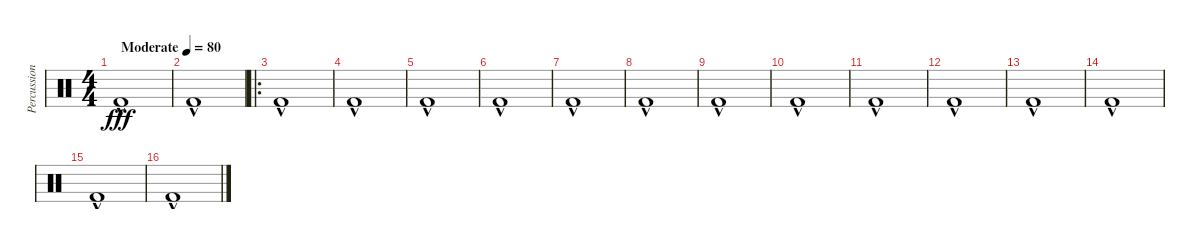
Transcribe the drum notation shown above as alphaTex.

\track ("Percussion" "Percussion") {instrument percussion bank 255}
\staff {score}
\articulation defaults
\ts (4 4)
\tempo (80 "Moderate")
\clef neutral
\ks c "Kick (hit) 2"{hac}.1{dy fff}
|
"Kick (hit) 2"{hac}.1 |
\ro "Kick (hit) 2"{hac}.1
|
"Kick (hit) 2"{hac}.1 |
"Kick (hit) 2"{hac}.1 |
"Kick (hit) 2"{hac}.1 |
"Kick (hit) 2"{hac}.1 |
"Kick (hit) 2"{hac}.1 |
"Kick (hit) 2"{hac}.1 |
"Kick (hit) 2"{hac}.1 |
"Kick (hit) 2"{hac}.1 |
"Kick (hit) 2"{hac}.1 |
"Kick (hit) 2"{hac}.1 |
"Kick (hit) 2"{hac}.1 |
"Kick (hit) 2"{hac}.1 |
"Kick (hit) 2"{hac}.1
